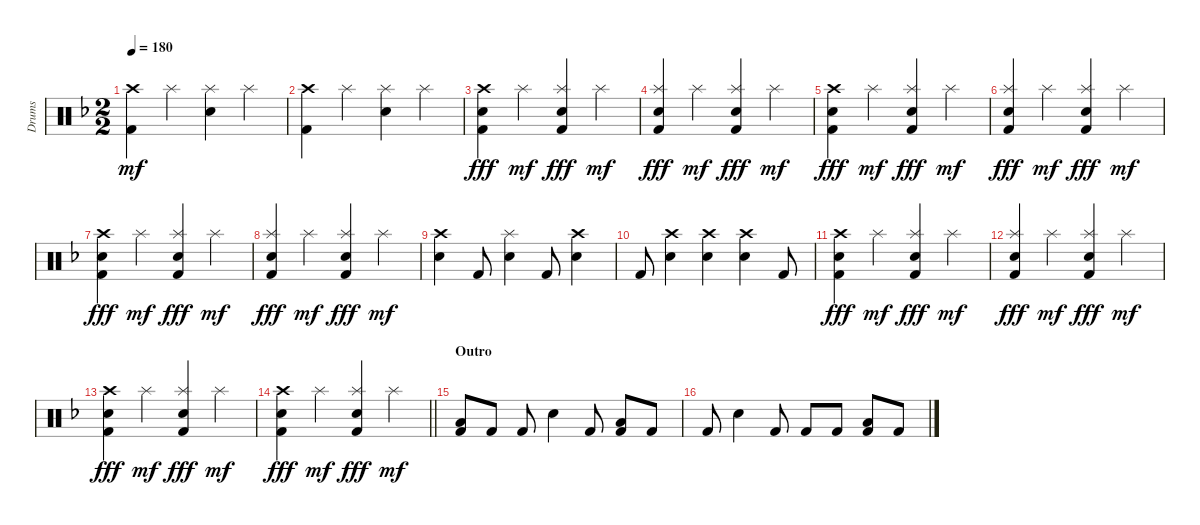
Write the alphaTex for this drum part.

\track ("Drums" "Drums") {instrument percussion}
\staff {score}
\articulation defaults
\ts (2 2)
\tempo 180
\clef neutral
\ks dminor
("Crash high (hit)" "Kick (hit) 2").4{dy mf} "Splash (hit)".4 ("Splash (hit)" "Snare (hit) 2").4 "Splash (hit)".4 |
("Crash high (hit)" "Kick (hit) 2").4 "Splash (hit)".4 ("Splash (hit)" "Snare (hit) 2").4 "Splash (hit)".4 |
("Crash high (hit)" "Kick (hit) 2" "Snare (hit) 2").4{dy fff} "Splash (hit)".4{dy mf} ("Splash (hit)" "Snare (hit) 2" "Kick (hit) 2").4{dy fff} "Splash (hit)".4{dy mf} |
("Splash (hit)" "Kick (hit) 2" "Snare (hit) 2").4{dy fff} "Splash (hit)".4{dy mf} ("Splash (hit)" "Snare (hit) 2" "Kick (hit) 2").4{dy fff} "Splash (hit)".4{dy mf} |
("Crash high (hit)" "Kick (hit) 2" "Snare (hit) 2").4{dy fff} "Splash (hit)".4{dy mf} ("Splash (hit)" "Snare (hit) 2" "Kick (hit) 2").4{dy fff} "Splash (hit)".4{dy mf} |
("Splash (hit)" "Kick (hit) 2" "Snare (hit) 2").4{dy fff} "Splash (hit)".4{dy mf} ("Splash (hit)" "Snare (hit) 2" "Kick (hit) 2").4{dy fff} "Splash (hit)".4{dy mf} |
("Crash high (hit)" "Kick (hit) 2" "Snare (hit) 2").4{dy fff} "Splash (hit)".4{dy mf} ("Splash (hit)" "Snare (hit) 2" "Kick (hit) 2").4{dy fff} "Splash (hit)".4{dy mf} |
("Splash (hit)" "Kick (hit) 2" "Snare (hit) 2").4{dy fff} "Splash (hit)".4{dy mf} ("Splash (hit)" "Snare (hit) 2" "Kick (hit) 2").4{dy fff} "Splash (hit)".4{dy mf} |
("Crash high (hit)" "Snare (hit) 2").4 "Kick (hit) 2".8 ("Splash (hit)" "Snare (hit) 2").4 "Kick (hit) 2".8 ("Snare (hit) 2" "Crash high (hit)").4 |
"Kick (hit) 2".8 ("Crash high (hit)" "Snare (hit) 2").4 ("Crash high (hit)" "Snare (hit) 2").4 ("Crash high (hit)" "Snare (hit) 2").4 "Kick (hit) 2".8 |
("Crash high (hit)" "Kick (hit) 2" "Snare (hit) 2").4{dy fff} "Splash (hit)".4{dy mf} ("Splash (hit)" "Snare (hit) 2" "Kick (hit) 2").4{dy fff} "Splash (hit)".4{dy mf} |
("Splash (hit)" "Kick (hit) 2" "Snare (hit) 2").4{dy fff} "Splash (hit)".4{dy mf} ("Splash (hit)" "Snare (hit) 2" "Kick (hit) 2").4{dy fff} "Splash (hit)".4{dy mf} |
("Crash high (hit)" "Kick (hit) 2" "Snare (hit) 2").4{dy fff} "Splash (hit)".4{dy mf} ("Splash (hit)" "Snare (hit) 2" "Kick (hit) 2").4{dy fff} "Splash (hit)".4{dy mf} |
\barLineRight lightlight
("Crash high (hit)" "Kick (hit) 2" "Snare (hit) 2").4{dy fff} "Splash (hit)".4{dy mf} ("Splash (hit)" "Snare (hit) 2" "Kick (hit) 2").4{dy fff} "Splash (hit)".4{dy mf} |
\section ("" "Outro")
("Low Floor Tom (hit)" "Kick (hit) 2").8 "Kick (hit) 2".8 "Kick (hit) 2".8 "Snare (hit) 2".4 "Kick (hit) 2".8 ("Low Floor Tom (hit)" "Kick (hit) 2").8 "Kick (hit) 2".8 |
"Kick (hit) 2".8 "Snare (hit) 2".4 "Kick (hit) 2".8 "Kick (hit) 2".8 "Kick (hit) 2".8 ("Kick (hit) 2" "Low Floor Tom (hit)").8 "Kick (hit) 2".8
